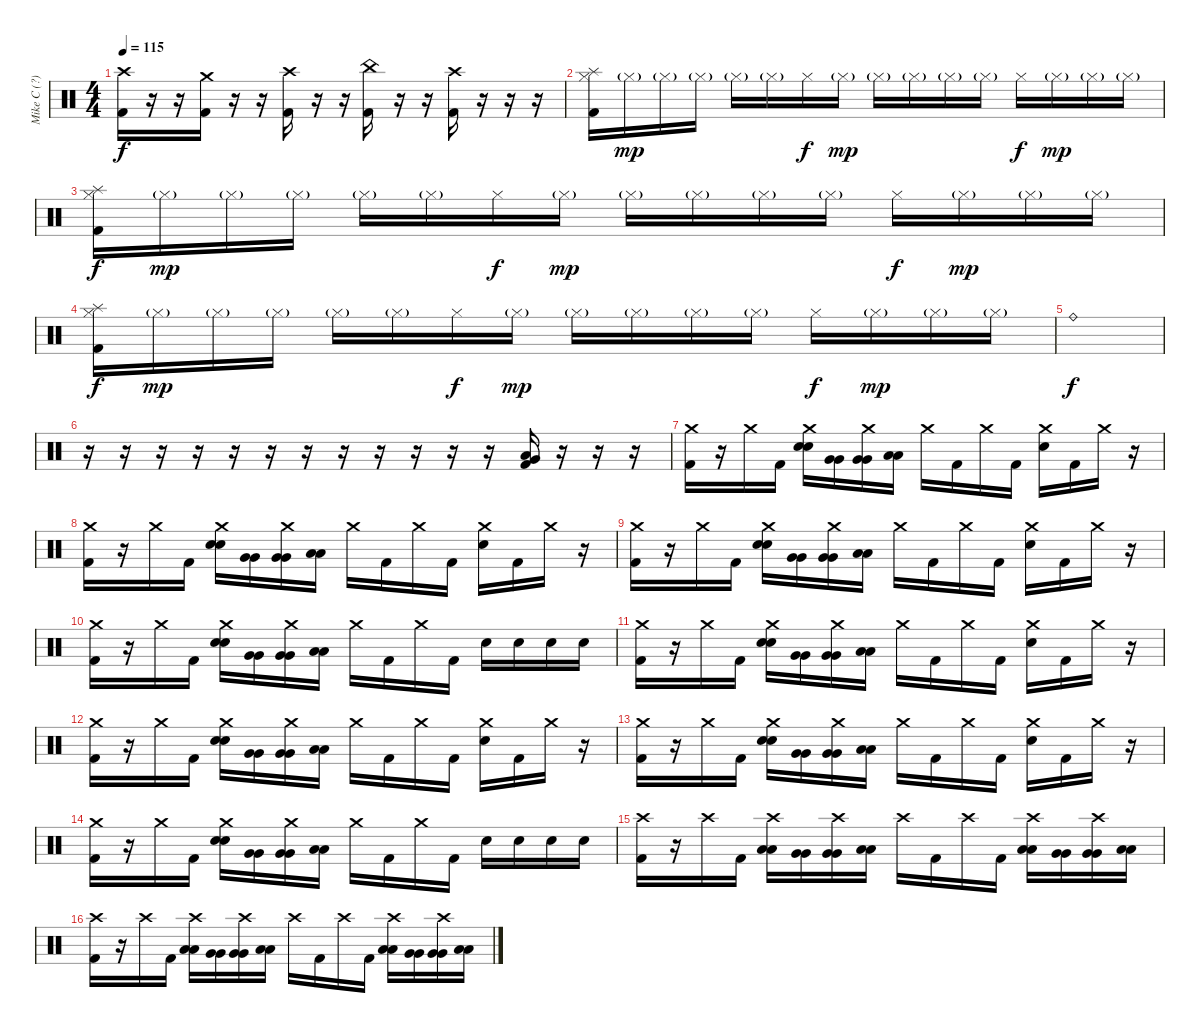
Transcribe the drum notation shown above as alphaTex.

\track ("Mike C (?)" "Mike C (?)") {instrument percussion}
\staff {score}
\articulation defaults
\ts (4 4)
\tempo 115
\clef neutral
\ks c
("Crash high (hit)" "Kick (hit) 2").16{dy f} r.16 r.16 ("Crash medium (hit)" "Kick (hit) 2").16 r.16 r.16 ("Crash high (hit)" "Kick (hit) 2").16 r.16 r.16 ("China (hit)" "Kick (hit) 2").16 r.16 r.16 ("Crash high (hit)" "Kick (hit) 2").16 r.16 r.16 r.16 |
("Splash (hit)" "Hi-Hat (closed)" "Kick (hit) 2").16 "Hi-Hat (closed)"{g}.16{dy mp} "Hi-Hat (closed)"{g}.16 "Hi-Hat (closed)"{g}.16 "Hi-Hat (closed)"{g}.16 "Hi-Hat (closed)"{g}.16 "Hi-Hat (closed)".16{dy f} "Hi-Hat (closed)"{g}.16{dy mp} "Hi-Hat (closed)"{g}.16 "Hi-Hat (closed)"{g}.16 "Hi-Hat (closed)"{g}.16 "Hi-Hat (closed)"{g}.16 "Hi-Hat (closed)".16{dy f} "Hi-Hat (closed)"{g}.16{dy mp} "Hi-Hat (closed)"{g}.16 "Hi-Hat (closed)"{g}.16 |
("Splash (hit)" "Hi-Hat (closed)" "Kick (hit) 2").16{dy f} "Hi-Hat (closed)"{g}.16{dy mp} "Hi-Hat (closed)"{g}.16 "Hi-Hat (closed)"{g}.16 "Hi-Hat (closed)"{g}.16 "Hi-Hat (closed)"{g}.16 "Hi-Hat (closed)".16{dy f} "Hi-Hat (closed)"{g}.16{dy mp} "Hi-Hat (closed)"{g}.16 "Hi-Hat (closed)"{g}.16 "Hi-Hat (closed)"{g}.16 "Hi-Hat (closed)"{g}.16 "Hi-Hat (closed)".16{dy f} "Hi-Hat (closed)"{g}.16{dy mp} "Hi-Hat (closed)"{g}.16 "Hi-Hat (closed)"{g}.16 |
("Splash (hit)" "Hi-Hat (closed)" "Kick (hit) 2").16{dy f} "Hi-Hat (closed)"{g}.16{dy mp} "Hi-Hat (closed)"{g}.16 "Hi-Hat (closed)"{g}.16 "Hi-Hat (closed)"{g}.16 "Hi-Hat (closed)"{g}.16 "Hi-Hat (closed)".16{dy f} "Hi-Hat (closed)"{g}.16{dy mp} "Hi-Hat (closed)"{g}.16 "Hi-Hat (closed)"{g}.16 "Hi-Hat (closed)"{g}.16 "Hi-Hat (closed)"{g}.16 "Hi-Hat (closed)".16{dy f} "Hi-Hat (closed)"{g}.16{dy mp} "Hi-Hat (closed)"{g}.16 "Hi-Hat (closed)"{g}.16 |
"Ride (bell)".1{dy f} |
r.16 r.16 r.16 r.16 r.16 r.16 r.16 r.16 r.16 r.16 r.16 r.16 ("Very Low Tom (hit)" "Low Floor Tom (hit)" "Kick (hit) 2").16 r.16 r.16 r.16 |
("Crash medium (hit)" "Kick (hit) 2").16 r.16 "Crash medium (hit)".16 "Kick (hit) 2".16 ("Crash medium (hit)" "Snare (hit) 2" "Snare (hit) 2").16 ("Very Low Tom (hit)" "Very Low Tom (hit)").16 ("Crash medium (hit)" "Very Low Tom (hit)" "Very Low Tom (hit)").16 ("Low Floor Tom (hit)" "Low Floor Tom (hit)").16 "Crash medium (hit)".16 "Kick (hit) 2".16 "Crash medium (hit)".16 "Kick (hit) 2".16 ("Crash medium (hit)" "Snare (hit) 2").16 "Kick (hit) 2".16 "Crash medium (hit)".16 r.16 |
("Crash medium (hit)" "Kick (hit) 2").16 r.16 "Crash medium (hit)".16 "Kick (hit) 2".16 ("Crash medium (hit)" "Snare (hit) 2" "Snare (hit) 2").16 ("Very Low Tom (hit)" "Very Low Tom (hit)").16 ("Crash medium (hit)" "Very Low Tom (hit)" "Very Low Tom (hit)").16 ("Low Floor Tom (hit)" "Low Floor Tom (hit)").16 "Crash medium (hit)".16 "Kick (hit) 2".16 "Crash medium (hit)".16 "Kick (hit) 2".16 ("Crash medium (hit)" "Snare (hit) 2").16 "Kick (hit) 2".16 "Crash medium (hit)".16 r.16 |
("Crash medium (hit)" "Kick (hit) 2").16 r.16 "Crash medium (hit)".16 "Kick (hit) 2".16 ("Crash medium (hit)" "Snare (hit) 2" "Snare (hit) 2").16 ("Very Low Tom (hit)" "Very Low Tom (hit)").16 ("Crash medium (hit)" "Very Low Tom (hit)" "Very Low Tom (hit)").16 ("Low Floor Tom (hit)" "Low Floor Tom (hit)").16 "Crash medium (hit)".16 "Kick (hit) 2".16 "Crash medium (hit)".16 "Kick (hit) 2".16 ("Crash medium (hit)" "Snare (hit) 2").16 "Kick (hit) 2".16 "Crash medium (hit)".16 r.16 |
("Crash medium (hit)" "Kick (hit) 2").16 r.16 "Crash medium (hit)".16 "Kick (hit) 2".16 ("Crash medium (hit)" "Snare (hit) 2" "Snare (hit) 2").16 ("Very Low Tom (hit)" "Very Low Tom (hit)").16 ("Crash medium (hit)" "Very Low Tom (hit)" "Very Low Tom (hit)").16 ("Low Floor Tom (hit)" "Low Floor Tom (hit)").16 "Crash medium (hit)".16 "Kick (hit) 2".16 "Crash medium (hit)".16 "Kick (hit) 2".16 "Snare (hit) 2".16 "Snare (hit) 2".16 "Snare (hit) 2".16 "Snare (hit) 2".16 |
("Crash medium (hit)" "Kick (hit) 2").16 r.16 "Crash medium (hit)".16 "Kick (hit) 2".16 ("Crash medium (hit)" "Snare (hit) 2" "Snare (hit) 2").16 ("Very Low Tom (hit)" "Very Low Tom (hit)").16 ("Crash medium (hit)" "Very Low Tom (hit)" "Very Low Tom (hit)").16 ("Low Floor Tom (hit)" "Low Floor Tom (hit)").16 "Crash medium (hit)".16 "Kick (hit) 2".16 "Crash medium (hit)".16 "Kick (hit) 2".16 ("Crash medium (hit)" "Snare (hit) 2").16 "Kick (hit) 2".16 "Crash medium (hit)".16 r.16 |
("Crash medium (hit)" "Kick (hit) 2").16 r.16 "Crash medium (hit)".16 "Kick (hit) 2".16 ("Crash medium (hit)" "Snare (hit) 2" "Snare (hit) 2").16 ("Very Low Tom (hit)" "Very Low Tom (hit)").16 ("Crash medium (hit)" "Very Low Tom (hit)" "Very Low Tom (hit)").16 ("Low Floor Tom (hit)" "Low Floor Tom (hit)").16 "Crash medium (hit)".16 "Kick (hit) 2".16 "Crash medium (hit)".16 "Kick (hit) 2".16 ("Crash medium (hit)" "Snare (hit) 2").16 "Kick (hit) 2".16 "Crash medium (hit)".16 r.16 |
("Crash medium (hit)" "Kick (hit) 2").16 r.16 "Crash medium (hit)".16 "Kick (hit) 2".16 ("Crash medium (hit)" "Snare (hit) 2" "Snare (hit) 2").16 ("Very Low Tom (hit)" "Very Low Tom (hit)").16 ("Crash medium (hit)" "Very Low Tom (hit)" "Very Low Tom (hit)").16 ("Low Floor Tom (hit)" "Low Floor Tom (hit)").16 "Crash medium (hit)".16 "Kick (hit) 2".16 "Crash medium (hit)".16 "Kick (hit) 2".16 ("Crash medium (hit)" "Snare (hit) 2").16 "Kick (hit) 2".16 "Crash medium (hit)".16 r.16 |
("Crash medium (hit)" "Kick (hit) 2").16 r.16 "Crash medium (hit)".16 "Kick (hit) 2".16 ("Crash medium (hit)" "Snare (hit) 2" "Snare (hit) 2").16 ("Very Low Tom (hit)" "Very Low Tom (hit)").16 ("Crash medium (hit)" "Very Low Tom (hit)" "Very Low Tom (hit)").16 ("Low Floor Tom (hit)" "Low Floor Tom (hit)").16 "Crash medium (hit)".16 "Kick (hit) 2".16 "Crash medium (hit)".16 "Kick (hit) 2".16 "Snare (hit) 2".16 "Snare (hit) 2".16 "Snare (hit) 2".16 "Snare (hit) 2".16 |
("Crash high (hit)" "Kick (hit) 2").16 r.16 "Crash high (hit)".16 "Kick (hit) 2".16 ("Crash high (hit)" "Low Tom (hit)" "Low Tom (hit)").16 ("Very Low Tom (hit)" "Very Low Tom (hit)").16 ("Crash high (hit)" "Very Low Tom (hit)" "Very Low Tom (hit)").16 ("Low Floor Tom (hit)" "Low Floor Tom (hit)").16 "Crash high (hit)".16 "Kick (hit) 2".16 "Crash high (hit)".16 "Kick (hit) 2".16 ("Crash high (hit)" "Low Tom (hit)" "Low Tom (hit)").16 ("Very Low Tom (hit)" "Very Low Tom (hit)").16 ("Crash high (hit)" "Very Low Tom (hit)" "Very Low Tom (hit)").16 ("Low Floor Tom (hit)" "Low Floor Tom (hit)").16 |
("Crash high (hit)" "Kick (hit) 2").16 r.16 "Crash high (hit)".16 "Kick (hit) 2".16 ("Crash high (hit)" "Low Tom (hit)" "Low Tom (hit)").16 ("Very Low Tom (hit)" "Very Low Tom (hit)").16 ("Crash high (hit)" "Very Low Tom (hit)" "Very Low Tom (hit)").16 ("Low Floor Tom (hit)" "Low Floor Tom (hit)").16 "Crash high (hit)".16 "Kick (hit) 2".16 "Crash high (hit)".16 "Kick (hit) 2".16 ("Crash high (hit)" "Low Tom (hit)" "Low Tom (hit)").16 ("Very Low Tom (hit)" "Very Low Tom (hit)").16 ("Crash high (hit)" "Very Low Tom (hit)" "Very Low Tom (hit)").16 ("Low Floor Tom (hit)" "Low Floor Tom (hit)").16
